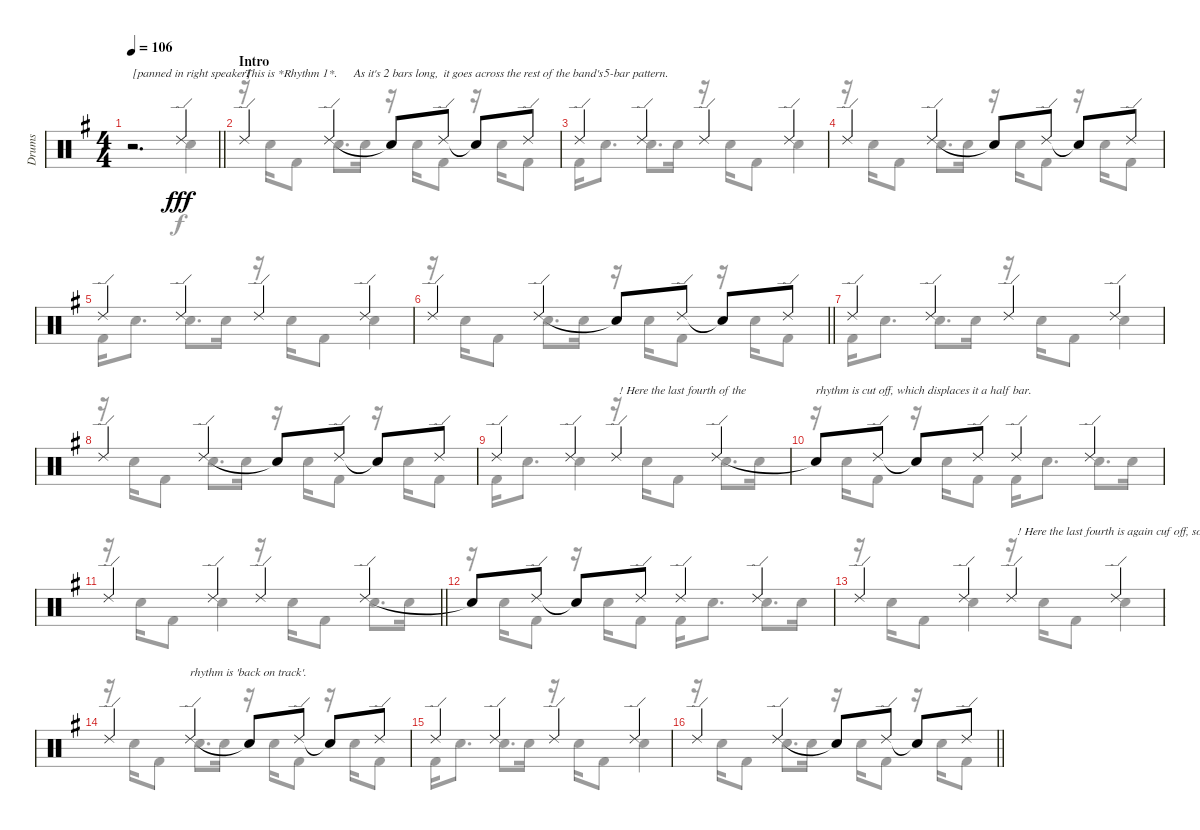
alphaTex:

\track ("Drums" "Drums") {instrument percussion}
\staff {score}
\articulation defaults
\voice
\ts (4 4)
\tempo 106
\clef neutral
\barLineRight lightlight
\ks eminor
r.2{d txt "[panned in right speaker]" dy fff} "Ride (edge) 2".4 |
\section ("" "Intro")
"Ride (edge) 2".4{txt "This is *Rhythm 1*."} "Ride (edge) 2".4{txt "        As it's 2 bars long, "} "Snare (hit)"{t}.8 "Ride (edge) 2".8{txt "it goes across the rest of the band's"} "Snare (hit)"{t}.8 "Ride (edge) 2".8 |
"Ride (edge) 2".4{txt "        5-bar pattern."} "Ride (edge) 2".4 "Ride (edge) 2".4 "Ride (edge) 2".4 |
"Ride (edge) 2".4 "Ride (edge) 2".4 "Snare (hit)"{t}.8 "Ride (edge) 2".8 "Snare (hit)"{t}.8 "Ride (edge) 2".8 |
"Ride (edge) 2".4 "Ride (edge) 2".4 "Ride (edge) 2".4 "Ride (edge) 2".4 |
\barLineRight lightlight "Ride (edge) 2".4 "Ride (edge) 2".4 "Snare (hit)"{t}.8 "Ride (edge) 2".8 "Snare (hit)"{t}.8 "Ride (edge) 2".8
|
"Ride (edge) 2".4 "Ride (edge) 2".4 "Ride (edge) 2".4 "Ride (edge) 2".4 |
"Ride (edge) 2".4 "Ride (edge) 2".4 "Snare (hit)"{t}.8 "Ride (edge) 2".8 "Snare (hit)"{t}.8 "Ride (edge) 2".8 |
"Ride (edge) 2".4 "Ride (edge) 2".4 "Ride (edge) 2".4{txt " ! Here the last fourth of the"} "Ride (edge) 2".4 |
"Snare (hit)"{t}.8{txt "rhythm is cut off, which displaces it a half bar."} "Ride (edge) 2".8 "Snare (hit)"{t}.8 "Ride (edge) 2".8 "Ride (edge) 2".4 "Ride (edge) 2".4 |
\barLineRight lightlight "Ride (edge) 2".4 "Ride (edge) 2".4 "Ride (edge) 2".4 "Ride (edge) 2".4
|
"Snare (hit)"{t}.8 "Ride (edge) 2".8 "Snare (hit)"{t}.8 "Ride (edge) 2".8 "Ride (edge) 2".4 "Ride (edge) 2".4 |
"Ride (edge) 2".4 "Ride (edge) 2".4 "Ride (edge) 2".4{txt "  ! Here the last fourth is again cuf off, so the"} "Ride (edge) 2".4 |
"Ride (edge) 2".4 "Ride (edge) 2".4{txt "rhythm is 'back on track'."} "Snare (hit)"{t}.8 "Ride (edge) 2".8 "Snare (hit)"{t}.8 "Ride (edge) 2".8 |
"Ride (edge) 2".4 "Ride (edge) 2".4 "Ride (edge) 2".4 "Ride (edge) 2".4 |
\barLineRight lightlight "Ride (edge) 2".4 "Ride (edge) 2".4 "Snare (hit)"{t}.8 "Ride (edge) 2".8 "Snare (hit)"{t}.8 "Ride (edge) 2".8
\voice
\clef neutral
\ottava regular
\simile none
\barLineRight lightlight
\ks eminor
r.2{d dy f} "Electric Snare (hit)".4 |
r.16 "Electric Snare (hit)".16 "Kick (hit) 2".8 "Electric Snare (hit)".8{d} "Electric Snare (hit)".16 r.16 "Electric Snare (hit)".16 "Kick (hit) 2".8 r.16 "Electric Snare (hit)".16 "Kick (hit) 2".8 |
"Kick (hit) 2".16 "Electric Snare (hit)".8{d} "Electric Snare (hit)".8{d} "Electric Snare (hit)".16 r.16 "Electric Snare (hit)".16 "Kick (hit) 2".8 "Electric Snare (hit)".4 |
r.16 "Electric Snare (hit)".16 "Kick (hit) 2".8 "Electric Snare (hit)".8{d} "Electric Snare (hit)".16 r.16 "Electric Snare (hit)".16 "Kick (hit) 2".8 r.16 "Electric Snare (hit)".16 "Kick (hit) 2".8 |
"Kick (hit) 2".16 "Electric Snare (hit)".8{d} "Electric Snare (hit)".8{d} "Electric Snare (hit)".16 r.16 "Electric Snare (hit)".16 "Kick (hit) 2".8 "Electric Snare (hit)".4 |
\barLineRight lightlight
r.16 "Electric Snare (hit)".16 "Kick (hit) 2".8 "Electric Snare (hit)".8{d} "Electric Snare (hit)".16 r.16 "Electric Snare (hit)".16 "Kick (hit) 2".8 r.16 "Electric Snare (hit)".16 "Kick (hit) 2".8 |
"Kick (hit) 2".16 "Electric Snare (hit)".8{d} "Electric Snare (hit)".8{d} "Electric Snare (hit)".16 r.16 "Electric Snare (hit)".16 "Kick (hit) 2".8 "Electric Snare (hit)".4 |
r.16 "Electric Snare (hit)".16 "Kick (hit) 2".8 "Electric Snare (hit)".8{d} "Electric Snare (hit)".16 r.16 "Electric Snare (hit)".16 "Kick (hit) 2".8 r.16 "Electric Snare (hit)".16 "Kick (hit) 2".8 |
"Kick (hit) 2".16 "Electric Snare (hit)".8{d} "Electric Snare (hit)".4 r.16 "Electric Snare (hit)".16 "Kick (hit) 2".8 "Electric Snare (hit)".8{d} "Electric Snare (hit)".16 |
r.16 "Electric Snare (hit)".16 "Kick (hit) 2".8 r.16 "Electric Snare (hit)".16 "Kick (hit) 2".8 "Kick (hit) 2".16 "Electric Snare (hit)".8{d} "Electric Snare (hit)".8{d} "Electric Snare (hit)".16 |
\barLineRight lightlight
r.16 "Electric Snare (hit)".16 "Kick (hit) 2".8 "Electric Snare (hit)".4 r.16 "Electric Snare (hit)".16 "Kick (hit) 2".8 "Electric Snare (hit)".8{d} "Electric Snare (hit)".16 |
r.16 "Electric Snare (hit)".16 "Kick (hit) 2".8 r.16 "Electric Snare (hit)".16 "Kick (hit) 2".8 "Kick (hit) 2".16 "Electric Snare (hit)".8{d} "Electric Snare (hit)".8{d} "Electric Snare (hit)".16 |
r.16 "Electric Snare (hit)".16 "Kick (hit) 2".8 "Electric Snare (hit)".4 r.16 "Electric Snare (hit)".16 "Kick (hit) 2".8 "Electric Snare (hit)".4 |
r.16 "Electric Snare (hit)".16 "Kick (hit) 2".8 "Electric Snare (hit)".8{d} "Electric Snare (hit)".16 r.16 "Electric Snare (hit)".16 "Kick (hit) 2".8 r.16 "Electric Snare (hit)".16 "Kick (hit) 2".8 |
"Kick (hit) 2".16 "Electric Snare (hit)".8{d} "Electric Snare (hit)".8{d} "Electric Snare (hit)".16 r.16 "Electric Snare (hit)".16 "Kick (hit) 2".8 "Electric Snare (hit)".4 |
\barLineRight lightlight
r.16 "Electric Snare (hit)".16 "Kick (hit) 2".8 "Electric Snare (hit)".8{d} "Electric Snare (hit)".16 r.16 "Electric Snare (hit)".16 "Kick (hit) 2".8 r.16 "Electric Snare (hit)".16 "Kick (hit) 2".8
